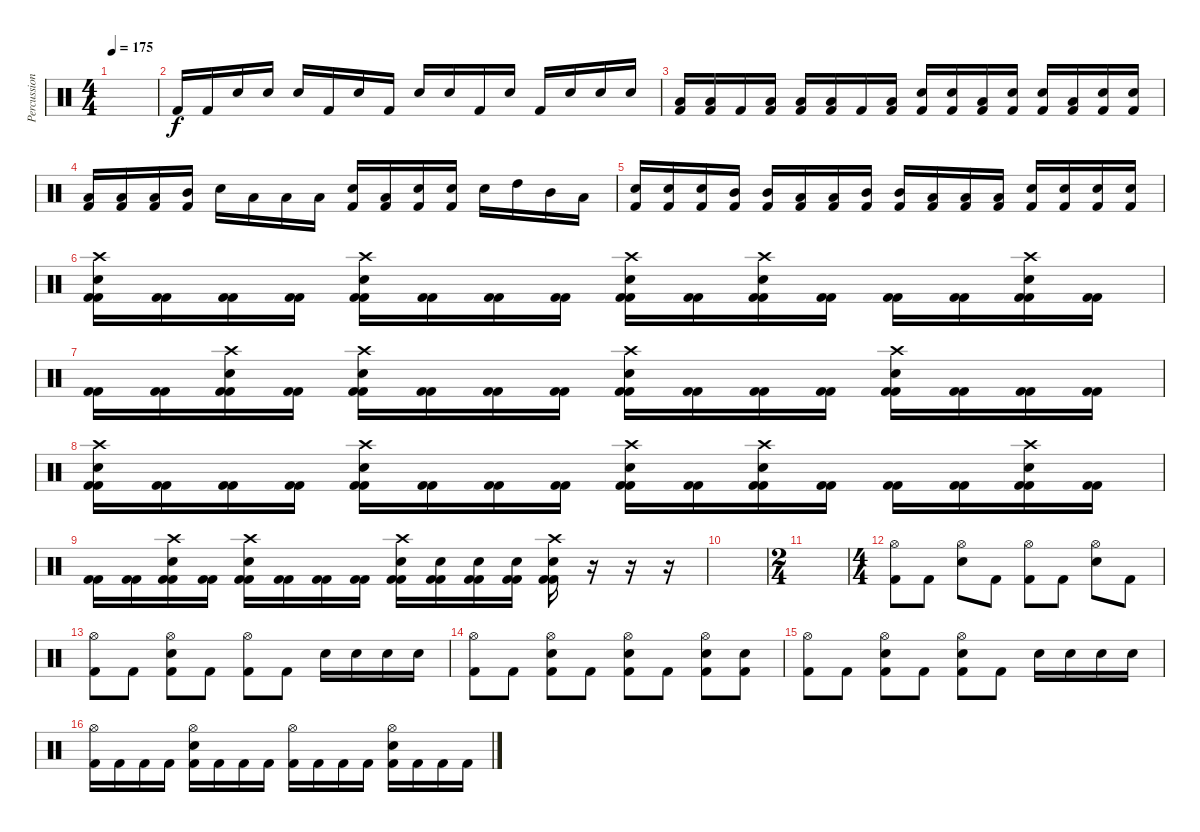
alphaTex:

\track ("Percussion" "Percussion") {instrument percussion}
\staff {score}
\articulation defaults
\ts (4 4)
\tempo 175
\clef neutral
\ks c
|
"Kick (hit) 2".16 "Kick (hit) 2".16 "Electric Snare (hit)".16 "Electric Snare (hit)".16 "Electric Snare (hit)".16 "Kick (hit) 2".16 "Electric Snare (hit)".16 "Kick (hit) 2".16 "Electric Snare (hit)".16 "Electric Snare (hit)".16 "Kick (hit) 2".16 "Electric Snare (hit)".16 "Kick (hit) 2".16 "Electric Snare (hit)".16 "Electric Snare (hit)".16 "Electric Snare (hit)".16 |
("Low Tom (hit)" "Kick (hit) 2").16 ("Low Tom (hit)" "Kick (hit) 2").16 "Kick (hit) 2".16 ("Low Tom (hit)" "Kick (hit) 2").16 ("Low Tom (hit)" "Kick (hit) 2").16 ("Low Tom (hit)" "Kick (hit) 2").16 "Kick (hit) 2".16 ("Low Tom (hit)" "Kick (hit) 2").16 ("Electric Snare (hit)" "Kick (hit) 2").16 ("Electric Snare (hit)" "Kick (hit) 2").16 ("Low Tom (hit)" "Kick (hit) 2").16 ("Electric Snare (hit)" "Kick (hit) 2").16 ("Electric Snare (hit)" "Kick (hit) 2").16 ("Low Tom (hit)" "Kick (hit) 2").16 ("Electric Snare (hit)" "Kick (hit) 2").16 ("Electric Snare (hit)" "Kick (hit) 2").16 |
("Low Tom (hit)" "Kick (hit) 2").16 ("Low Tom (hit)" "Kick (hit) 2").16 ("Low Tom (hit)" "Kick (hit) 2").16 ("Mid Tom (hit)" "Kick (hit) 2").16 "Electric Snare (hit)".16 "Low Tom (hit)".16 "Low Tom (hit)".16 "Low Tom (hit)".16 ("Electric Snare (hit)" "Kick (hit) 2").16 ("Low Tom (hit)" "Kick (hit) 2").16 ("Electric Snare (hit)" "Kick (hit) 2").16 ("Electric Snare (hit)" "Kick (hit) 2").16 "Electric Snare (hit)".16 "High Tom (hit)".16 "Mid Tom (hit)".16 "Low Tom (hit)".16 |
("Electric Snare (hit)" "Kick (hit) 2").16 ("Electric Snare (hit)" "Kick (hit) 2").16 ("Electric Snare (hit)" "Kick (hit) 2").16 ("Mid Tom (hit)" "Kick (hit) 2").16 ("Mid Tom (hit)" "Kick (hit) 2").16 ("Low Tom (hit)" "Kick (hit) 2").16 ("Low Tom (hit)" "Kick (hit) 2").16 ("Mid Tom (hit)" "Kick (hit) 2").16 ("Mid Tom (hit)" "Kick (hit) 2").16 ("Low Tom (hit)" "Kick (hit) 2").16 ("Low Tom (hit)" "Kick (hit) 2").16 ("Low Tom (hit)" "Kick (hit) 2").16 ("Electric Snare (hit)" "Kick (hit) 2").16 ("Electric Snare (hit)" "Kick (hit) 2").16 ("Electric Snare (hit)" "Kick (hit) 2").16 ("Electric Snare (hit)" "Kick (hit) 2").16 |
("Crash high (hit)" "Electric Snare (hit)" "Kick (hit) 2" "Kick (hit) 2").16 ("Kick (hit) 2" "Kick (hit) 2").16 ("Kick (hit) 2" "Kick (hit) 2").16 ("Kick (hit) 2" "Kick (hit) 2").16 ("Crash high (hit)" "Electric Snare (hit)" "Kick (hit) 2" "Kick (hit) 2").16 ("Kick (hit) 2" "Kick (hit) 2").16 ("Kick (hit) 2" "Kick (hit) 2").16 ("Kick (hit) 2" "Kick (hit) 2").16 ("Crash high (hit)" "Electric Snare (hit)" "Kick (hit) 2" "Kick (hit) 2").16 ("Kick (hit) 2" "Kick (hit) 2").16 ("Crash high (hit)" "Electric Snare (hit)" "Kick (hit) 2" "Kick (hit) 2").16 ("Kick (hit) 2" "Kick (hit) 2").16 ("Kick (hit) 2" "Kick (hit) 2").16 ("Kick (hit) 2" "Kick (hit) 2").16 ("Crash high (hit)" "Electric Snare (hit)" "Kick (hit) 2" "Kick (hit) 2").16 ("Kick (hit) 2" "Kick (hit) 2").16 |
("Kick (hit) 2" "Kick (hit) 2").16 ("Kick (hit) 2" "Kick (hit) 2").16 ("Crash high (hit)" "Electric Snare (hit)" "Kick (hit) 2" "Kick (hit) 2").16 ("Kick (hit) 2" "Kick (hit) 2").16 ("Crash high (hit)" "Electric Snare (hit)" "Kick (hit) 2" "Kick (hit) 2").16 ("Kick (hit) 2" "Kick (hit) 2").16 ("Kick (hit) 2" "Kick (hit) 2").16 ("Kick (hit) 2" "Kick (hit) 2").16 ("Crash high (hit)" "Electric Snare (hit)" "Kick (hit) 2" "Kick (hit) 2").16 ("Kick (hit) 2" "Kick (hit) 2").16 ("Kick (hit) 2" "Kick (hit) 2").16 ("Kick (hit) 2" "Kick (hit) 2").16 ("Crash high (hit)" "Electric Snare (hit)" "Kick (hit) 2" "Kick (hit) 2").16 ("Kick (hit) 2" "Kick (hit) 2").16 ("Kick (hit) 2" "Kick (hit) 2").16 ("Kick (hit) 2" "Kick (hit) 2").16 |
("Crash high (hit)" "Electric Snare (hit)" "Kick (hit) 2" "Kick (hit) 2").16 ("Kick (hit) 2" "Kick (hit) 2").16 ("Kick (hit) 2" "Kick (hit) 2").16 ("Kick (hit) 2" "Kick (hit) 2").16 ("Crash high (hit)" "Electric Snare (hit)" "Kick (hit) 2" "Kick (hit) 2").16 ("Kick (hit) 2" "Kick (hit) 2").16 ("Kick (hit) 2" "Kick (hit) 2").16 ("Kick (hit) 2" "Kick (hit) 2").16 ("Crash high (hit)" "Electric Snare (hit)" "Kick (hit) 2" "Kick (hit) 2").16 ("Kick (hit) 2" "Kick (hit) 2").16 ("Crash high (hit)" "Electric Snare (hit)" "Kick (hit) 2" "Kick (hit) 2").16 ("Kick (hit) 2" "Kick (hit) 2").16 ("Kick (hit) 2" "Kick (hit) 2").16 ("Kick (hit) 2" "Kick (hit) 2").16 ("Crash high (hit)" "Electric Snare (hit)" "Kick (hit) 2" "Kick (hit) 2").16 ("Kick (hit) 2" "Kick (hit) 2").16 |
("Kick (hit) 2" "Kick (hit) 2").16 ("Kick (hit) 2" "Kick (hit) 2").16 ("Crash high (hit)" "Electric Snare (hit)" "Kick (hit) 2" "Kick (hit) 2").16 ("Kick (hit) 2" "Kick (hit) 2").16 ("Crash high (hit)" "Electric Snare (hit)" "Kick (hit) 2" "Kick (hit) 2").16 ("Kick (hit) 2" "Kick (hit) 2").16 ("Kick (hit) 2" "Kick (hit) 2").16 ("Kick (hit) 2" "Kick (hit) 2").16 ("Crash high (hit)" "Electric Snare (hit)" "Kick (hit) 2" "Kick (hit) 2").16 ("Electric Snare (hit)" "Kick (hit) 2" "Kick (hit) 2").16 ("Electric Snare (hit)" "Kick (hit) 2" "Kick (hit) 2").16 ("Electric Snare (hit)" "Kick (hit) 2" "Kick (hit) 2").16 ("Crash high (hit)" "Electric Snare (hit)" "Kick (hit) 2" "Kick (hit) 2").16 r.16 r.16 r.16 |
|
\ts (2 4)
|
\ts (4 4)
("Hi-Hat (open)" "Kick (hit) 2").8 "Kick (hit) 2".8 ("Hi-Hat (open)" "Snare (hit) 2").8 "Kick (hit) 2".8 ("Hi-Hat (open)" "Kick (hit) 2").8 "Kick (hit) 2".8 ("Hi-Hat (open)" "Electric Snare (hit)").8 "Kick (hit) 2".8 |
("Hi-Hat (open)" "Kick (hit) 2").8 "Kick (hit) 2".8 ("Hi-Hat (open)" "Electric Snare (hit)" "Kick (hit) 2").8 "Kick (hit) 2".8 ("Hi-Hat (open)" "Kick (hit) 2").8 "Kick (hit) 2".8 "Electric Snare (hit)".16 "Electric Snare (hit)".16 "Electric Snare (hit)".16 "Electric Snare (hit)".16 |
("Hi-Hat (open)" "Kick (hit) 2").8 "Kick (hit) 2".8 ("Hi-Hat (open)" "Electric Snare (hit)" "Kick (hit) 2").8 "Kick (hit) 2".8 ("Hi-Hat (open)" "Electric Snare (hit)" "Kick (hit) 2").8 "Kick (hit) 2".8 ("Hi-Hat (open)" "Electric Snare (hit)" "Kick (hit) 2").8 ("Electric Snare (hit)" "Kick (hit) 2").8 |
("Hi-Hat (open)" "Kick (hit) 2").8 "Kick (hit) 2".8 ("Hi-Hat (open)" "Electric Snare (hit)" "Kick (hit) 2").8 "Kick (hit) 2".8 ("Hi-Hat (open)" "Electric Snare (hit)" "Kick (hit) 2").8 "Kick (hit) 2".8 "Electric Snare (hit)".16 "Electric Snare (hit)".16 "Electric Snare (hit)".16 "Electric Snare (hit)".16 |
("Hi-Hat (open)" "Kick (hit) 2").16 "Kick (hit) 2".16 "Kick (hit) 2".16 "Kick (hit) 2".16 ("Hi-Hat (open)" "Electric Snare (hit)" "Kick (hit) 2").16 "Kick (hit) 2".16 "Kick (hit) 2".16 "Kick (hit) 2".16 ("Hi-Hat (open)" "Kick (hit) 2").16 "Kick (hit) 2".16 "Kick (hit) 2".16 "Kick (hit) 2".16 ("Hi-Hat (open)" "Electric Snare (hit)" "Kick (hit) 2").16 "Kick (hit) 2".16 "Kick (hit) 2".16 "Kick (hit) 2".16
